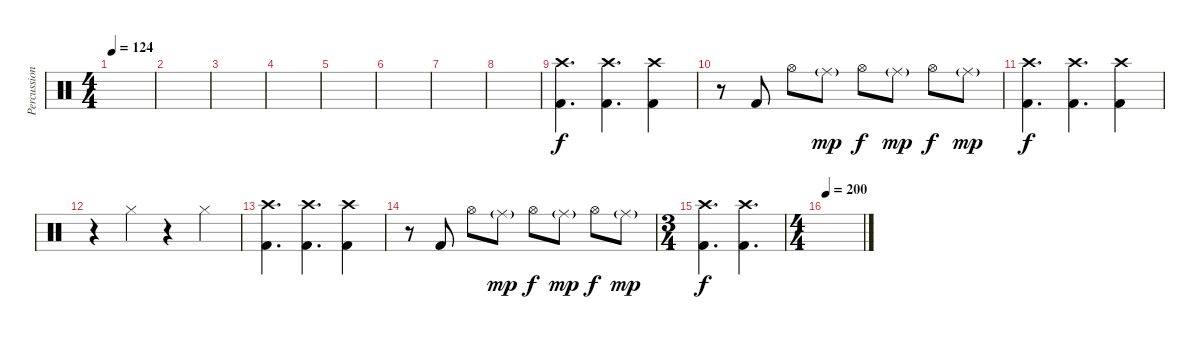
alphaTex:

\track ("Percussion" "Percussion") {instrument percussion}
\staff {score}
\articulation defaults
\ts (4 4)
\tempo 124
\clef neutral
\ks c
|
|
|
|
|
|
|
|
("Crash high (hit)" "Kick (hit) 2").4{d} ("Crash high (hit)" "Kick (hit) 2").4{d} ("Crash high (hit)" "Kick (hit) 2").4 |
r.8 "Kick (hit) 2".8 "Hi-Hat (open)".8 "Ride (middle)"{g}.8{dy mp} "Hi-Hat (open)".8{dy f} "Ride (middle)"{g}.8{dy mp} "Hi-Hat (open)".8{dy f} "Ride (middle)"{g}.8{dy mp} |
("Crash high (hit)" "Kick (hit) 2").4{d dy f} ("Crash high (hit)" "Kick (hit) 2").4{d} ("Crash high (hit)" "Kick (hit) 2").4 |
r.4 "Hi-Hat (closed)".4 r.4 "Hi-Hat (closed)".4 |
("Crash high (hit)" "Kick (hit) 2").4{d} ("Crash high (hit)" "Kick (hit) 2").4{d} ("Crash high (hit)" "Kick (hit) 2").4 |
r.8 "Kick (hit) 2".8 "Hi-Hat (open)".8 "Ride (middle)"{g}.8{dy mp} "Hi-Hat (open)".8{dy f} "Ride (middle)"{g}.8{dy mp} "Hi-Hat (open)".8{dy f} "Ride (middle)"{g}.8{dy mp} |
\ts (3 4)
("Crash high (hit)" "Kick (hit) 2").4{d dy f} ("Crash high (hit)" "Kick (hit) 2").4{d} |
\ts (4 4)
\tempo 200
